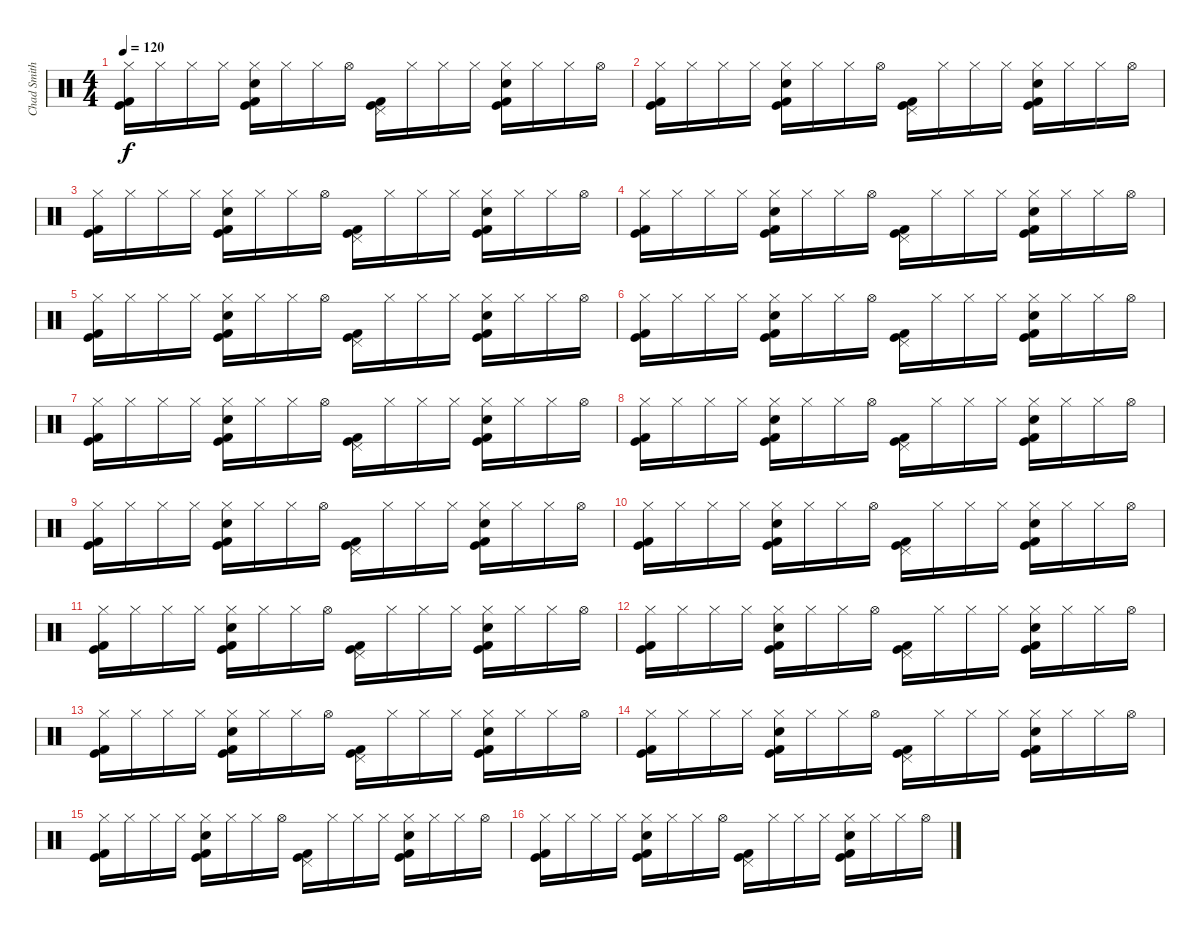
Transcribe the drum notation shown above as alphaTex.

\track ("Chad Smith" "Chad Smith") {instrument percussion}
\staff {score}
\articulation defaults
\ts (4 4)
\tempo 120
\clef neutral
\ks c
("Hi-Hat (closed)" "Kick (hit) 2" "Kick (hit)").16{dy f} "Hi-Hat (closed)".16 "Hi-Hat (closed)".16 "Hi-Hat (closed)".16 ("Hi-Hat (closed)" "Snare (hit) 2" "Kick (hit) 2" "Kick (hit)").16 "Hi-Hat (closed)".16 "Hi-Hat (closed)".16 "Hi-Hat (open)".16 ("Pedal Hi-Hat (hit)" "Kick (hit) 2" "Kick (hit)").16 "Hi-Hat (closed)".16 "Hi-Hat (closed)".16 "Hi-Hat (closed)".16 ("Hi-Hat (closed)" "Snare (hit) 2" "Kick (hit) 2" "Kick (hit)").16 "Hi-Hat (closed)".16 "Hi-Hat (closed)".16 "Hi-Hat (open)".16 |
("Hi-Hat (closed)" "Kick (hit) 2" "Kick (hit)").16 "Hi-Hat (closed)".16 "Hi-Hat (closed)".16 "Hi-Hat (closed)".16 ("Hi-Hat (closed)" "Snare (hit) 2" "Kick (hit) 2" "Kick (hit)").16 "Hi-Hat (closed)".16 "Hi-Hat (closed)".16 "Hi-Hat (open)".16 ("Pedal Hi-Hat (hit)" "Kick (hit) 2" "Kick (hit)").16 "Hi-Hat (closed)".16 "Hi-Hat (closed)".16 "Hi-Hat (closed)".16 ("Hi-Hat (closed)" "Snare (hit) 2" "Kick (hit) 2" "Kick (hit)").16 "Hi-Hat (closed)".16 "Hi-Hat (closed)".16 "Hi-Hat (open)".16 |
("Hi-Hat (closed)" "Kick (hit) 2" "Kick (hit)").16 "Hi-Hat (closed)".16 "Hi-Hat (closed)".16 "Hi-Hat (closed)".16 ("Hi-Hat (closed)" "Snare (hit) 2" "Kick (hit) 2" "Kick (hit)").16 "Hi-Hat (closed)".16 "Hi-Hat (closed)".16 "Hi-Hat (open)".16 ("Pedal Hi-Hat (hit)" "Kick (hit) 2" "Kick (hit)").16 "Hi-Hat (closed)".16 "Hi-Hat (closed)".16 "Hi-Hat (closed)".16 ("Hi-Hat (closed)" "Snare (hit) 2" "Kick (hit) 2" "Kick (hit)").16 "Hi-Hat (closed)".16 "Hi-Hat (closed)".16 "Hi-Hat (open)".16 |
("Hi-Hat (closed)" "Kick (hit) 2" "Kick (hit)").16 "Hi-Hat (closed)".16 "Hi-Hat (closed)".16 "Hi-Hat (closed)".16 ("Hi-Hat (closed)" "Snare (hit) 2" "Kick (hit) 2" "Kick (hit)").16 "Hi-Hat (closed)".16 "Hi-Hat (closed)".16 "Hi-Hat (open)".16 ("Pedal Hi-Hat (hit)" "Kick (hit) 2" "Kick (hit)").16 "Hi-Hat (closed)".16 "Hi-Hat (closed)".16 "Hi-Hat (closed)".16 ("Hi-Hat (closed)" "Snare (hit) 2" "Kick (hit) 2" "Kick (hit)").16 "Hi-Hat (closed)".16 "Hi-Hat (closed)".16 "Hi-Hat (open)".16 |
("Hi-Hat (closed)" "Kick (hit) 2" "Kick (hit)").16 "Hi-Hat (closed)".16 "Hi-Hat (closed)".16 "Hi-Hat (closed)".16 ("Hi-Hat (closed)" "Snare (hit) 2" "Kick (hit) 2" "Kick (hit)").16 "Hi-Hat (closed)".16 "Hi-Hat (closed)".16 "Hi-Hat (open)".16 ("Pedal Hi-Hat (hit)" "Kick (hit) 2" "Kick (hit)").16 "Hi-Hat (closed)".16 "Hi-Hat (closed)".16 "Hi-Hat (closed)".16 ("Hi-Hat (closed)" "Snare (hit) 2" "Kick (hit) 2" "Kick (hit)").16 "Hi-Hat (closed)".16 "Hi-Hat (closed)".16 "Hi-Hat (open)".16 |
("Hi-Hat (closed)" "Kick (hit) 2" "Kick (hit)").16 "Hi-Hat (closed)".16 "Hi-Hat (closed)".16 "Hi-Hat (closed)".16 ("Hi-Hat (closed)" "Snare (hit) 2" "Kick (hit) 2" "Kick (hit)").16 "Hi-Hat (closed)".16 "Hi-Hat (closed)".16 "Hi-Hat (open)".16 ("Pedal Hi-Hat (hit)" "Kick (hit) 2" "Kick (hit)").16 "Hi-Hat (closed)".16 "Hi-Hat (closed)".16 "Hi-Hat (closed)".16 ("Hi-Hat (closed)" "Snare (hit) 2" "Kick (hit) 2" "Kick (hit)").16 "Hi-Hat (closed)".16 "Hi-Hat (closed)".16 "Hi-Hat (open)".16 |
("Hi-Hat (closed)" "Kick (hit) 2" "Kick (hit)").16 "Hi-Hat (closed)".16 "Hi-Hat (closed)".16 "Hi-Hat (closed)".16 ("Hi-Hat (closed)" "Snare (hit) 2" "Kick (hit) 2" "Kick (hit)").16 "Hi-Hat (closed)".16 "Hi-Hat (closed)".16 "Hi-Hat (open)".16 ("Pedal Hi-Hat (hit)" "Kick (hit) 2" "Kick (hit)").16 "Hi-Hat (closed)".16 "Hi-Hat (closed)".16 "Hi-Hat (closed)".16 ("Hi-Hat (closed)" "Snare (hit) 2" "Kick (hit) 2" "Kick (hit)").16 "Hi-Hat (closed)".16 "Hi-Hat (closed)".16 "Hi-Hat (open)".16 |
("Hi-Hat (closed)" "Kick (hit) 2" "Kick (hit)").16 "Hi-Hat (closed)".16 "Hi-Hat (closed)".16 "Hi-Hat (closed)".16 ("Hi-Hat (closed)" "Snare (hit) 2" "Kick (hit) 2" "Kick (hit)").16 "Hi-Hat (closed)".16 "Hi-Hat (closed)".16 "Hi-Hat (open)".16 ("Pedal Hi-Hat (hit)" "Kick (hit) 2" "Kick (hit)").16 "Hi-Hat (closed)".16 "Hi-Hat (closed)".16 "Hi-Hat (closed)".16 ("Hi-Hat (closed)" "Snare (hit) 2" "Kick (hit) 2" "Kick (hit)").16 "Hi-Hat (closed)".16 "Hi-Hat (closed)".16 "Hi-Hat (open)".16 |
("Hi-Hat (closed)" "Kick (hit) 2" "Kick (hit)").16 "Hi-Hat (closed)".16 "Hi-Hat (closed)".16 "Hi-Hat (closed)".16 ("Hi-Hat (closed)" "Snare (hit) 2" "Kick (hit) 2" "Kick (hit)").16 "Hi-Hat (closed)".16 "Hi-Hat (closed)".16 "Hi-Hat (open)".16 ("Pedal Hi-Hat (hit)" "Kick (hit) 2" "Kick (hit)").16 "Hi-Hat (closed)".16 "Hi-Hat (closed)".16 "Hi-Hat (closed)".16 ("Hi-Hat (closed)" "Snare (hit) 2" "Kick (hit) 2" "Kick (hit)").16 "Hi-Hat (closed)".16 "Hi-Hat (closed)".16 "Hi-Hat (open)".16 |
("Hi-Hat (closed)" "Kick (hit) 2" "Kick (hit)").16 "Hi-Hat (closed)".16 "Hi-Hat (closed)".16 "Hi-Hat (closed)".16 ("Hi-Hat (closed)" "Snare (hit) 2" "Kick (hit) 2" "Kick (hit)").16 "Hi-Hat (closed)".16 "Hi-Hat (closed)".16 "Hi-Hat (open)".16 ("Pedal Hi-Hat (hit)" "Kick (hit) 2" "Kick (hit)").16 "Hi-Hat (closed)".16 "Hi-Hat (closed)".16 "Hi-Hat (closed)".16 ("Hi-Hat (closed)" "Snare (hit) 2" "Kick (hit) 2" "Kick (hit)").16 "Hi-Hat (closed)".16 "Hi-Hat (closed)".16 "Hi-Hat (open)".16 |
("Hi-Hat (closed)" "Kick (hit) 2" "Kick (hit)").16 "Hi-Hat (closed)".16 "Hi-Hat (closed)".16 "Hi-Hat (closed)".16 ("Hi-Hat (closed)" "Snare (hit) 2" "Kick (hit) 2" "Kick (hit)").16 "Hi-Hat (closed)".16 "Hi-Hat (closed)".16 "Hi-Hat (open)".16 ("Pedal Hi-Hat (hit)" "Kick (hit) 2" "Kick (hit)").16 "Hi-Hat (closed)".16 "Hi-Hat (closed)".16 "Hi-Hat (closed)".16 ("Hi-Hat (closed)" "Snare (hit) 2" "Kick (hit) 2" "Kick (hit)").16 "Hi-Hat (closed)".16 "Hi-Hat (closed)".16 "Hi-Hat (open)".16 |
("Hi-Hat (closed)" "Kick (hit) 2" "Kick (hit)").16 "Hi-Hat (closed)".16 "Hi-Hat (closed)".16 "Hi-Hat (closed)".16 ("Hi-Hat (closed)" "Snare (hit) 2" "Kick (hit) 2" "Kick (hit)").16 "Hi-Hat (closed)".16 "Hi-Hat (closed)".16 "Hi-Hat (open)".16 ("Pedal Hi-Hat (hit)" "Kick (hit) 2" "Kick (hit)").16 "Hi-Hat (closed)".16 "Hi-Hat (closed)".16 "Hi-Hat (closed)".16 ("Hi-Hat (closed)" "Snare (hit) 2" "Kick (hit) 2" "Kick (hit)").16 "Hi-Hat (closed)".16 "Hi-Hat (closed)".16 "Hi-Hat (open)".16 |
("Hi-Hat (closed)" "Kick (hit) 2" "Kick (hit)").16 "Hi-Hat (closed)".16 "Hi-Hat (closed)".16 "Hi-Hat (closed)".16 ("Hi-Hat (closed)" "Snare (hit) 2" "Kick (hit) 2" "Kick (hit)").16 "Hi-Hat (closed)".16 "Hi-Hat (closed)".16 "Hi-Hat (open)".16 ("Pedal Hi-Hat (hit)" "Kick (hit) 2" "Kick (hit)").16 "Hi-Hat (closed)".16 "Hi-Hat (closed)".16 "Hi-Hat (closed)".16 ("Hi-Hat (closed)" "Snare (hit) 2" "Kick (hit) 2" "Kick (hit)").16 "Hi-Hat (closed)".16 "Hi-Hat (closed)".16 "Hi-Hat (open)".16 |
("Hi-Hat (closed)" "Kick (hit) 2" "Kick (hit)").16 "Hi-Hat (closed)".16 "Hi-Hat (closed)".16 "Hi-Hat (closed)".16 ("Hi-Hat (closed)" "Snare (hit) 2" "Kick (hit) 2" "Kick (hit)").16 "Hi-Hat (closed)".16 "Hi-Hat (closed)".16 "Hi-Hat (open)".16 ("Pedal Hi-Hat (hit)" "Kick (hit) 2" "Kick (hit)").16 "Hi-Hat (closed)".16 "Hi-Hat (closed)".16 "Hi-Hat (closed)".16 ("Hi-Hat (closed)" "Snare (hit) 2" "Kick (hit) 2" "Kick (hit)").16 "Hi-Hat (closed)".16 "Hi-Hat (closed)".16 "Hi-Hat (open)".16 |
("Hi-Hat (closed)" "Kick (hit) 2" "Kick (hit)").16 "Hi-Hat (closed)".16 "Hi-Hat (closed)".16 "Hi-Hat (closed)".16 ("Hi-Hat (closed)" "Snare (hit) 2" "Kick (hit) 2" "Kick (hit)").16 "Hi-Hat (closed)".16 "Hi-Hat (closed)".16 "Hi-Hat (open)".16 ("Pedal Hi-Hat (hit)" "Kick (hit) 2" "Kick (hit)").16 "Hi-Hat (closed)".16 "Hi-Hat (closed)".16 "Hi-Hat (closed)".16 ("Hi-Hat (closed)" "Snare (hit) 2" "Kick (hit) 2" "Kick (hit)").16 "Hi-Hat (closed)".16 "Hi-Hat (closed)".16 "Hi-Hat (open)".16 |
("Hi-Hat (closed)" "Kick (hit) 2" "Kick (hit)").16 "Hi-Hat (closed)".16 "Hi-Hat (closed)".16 "Hi-Hat (closed)".16 ("Hi-Hat (closed)" "Snare (hit) 2" "Kick (hit) 2" "Kick (hit)").16 "Hi-Hat (closed)".16 "Hi-Hat (closed)".16 "Hi-Hat (open)".16 ("Pedal Hi-Hat (hit)" "Kick (hit) 2" "Kick (hit)").16 "Hi-Hat (closed)".16 "Hi-Hat (closed)".16 "Hi-Hat (closed)".16 ("Hi-Hat (closed)" "Snare (hit) 2" "Kick (hit) 2" "Kick (hit)").16 "Hi-Hat (closed)".16 "Hi-Hat (closed)".16 "Hi-Hat (open)".16
